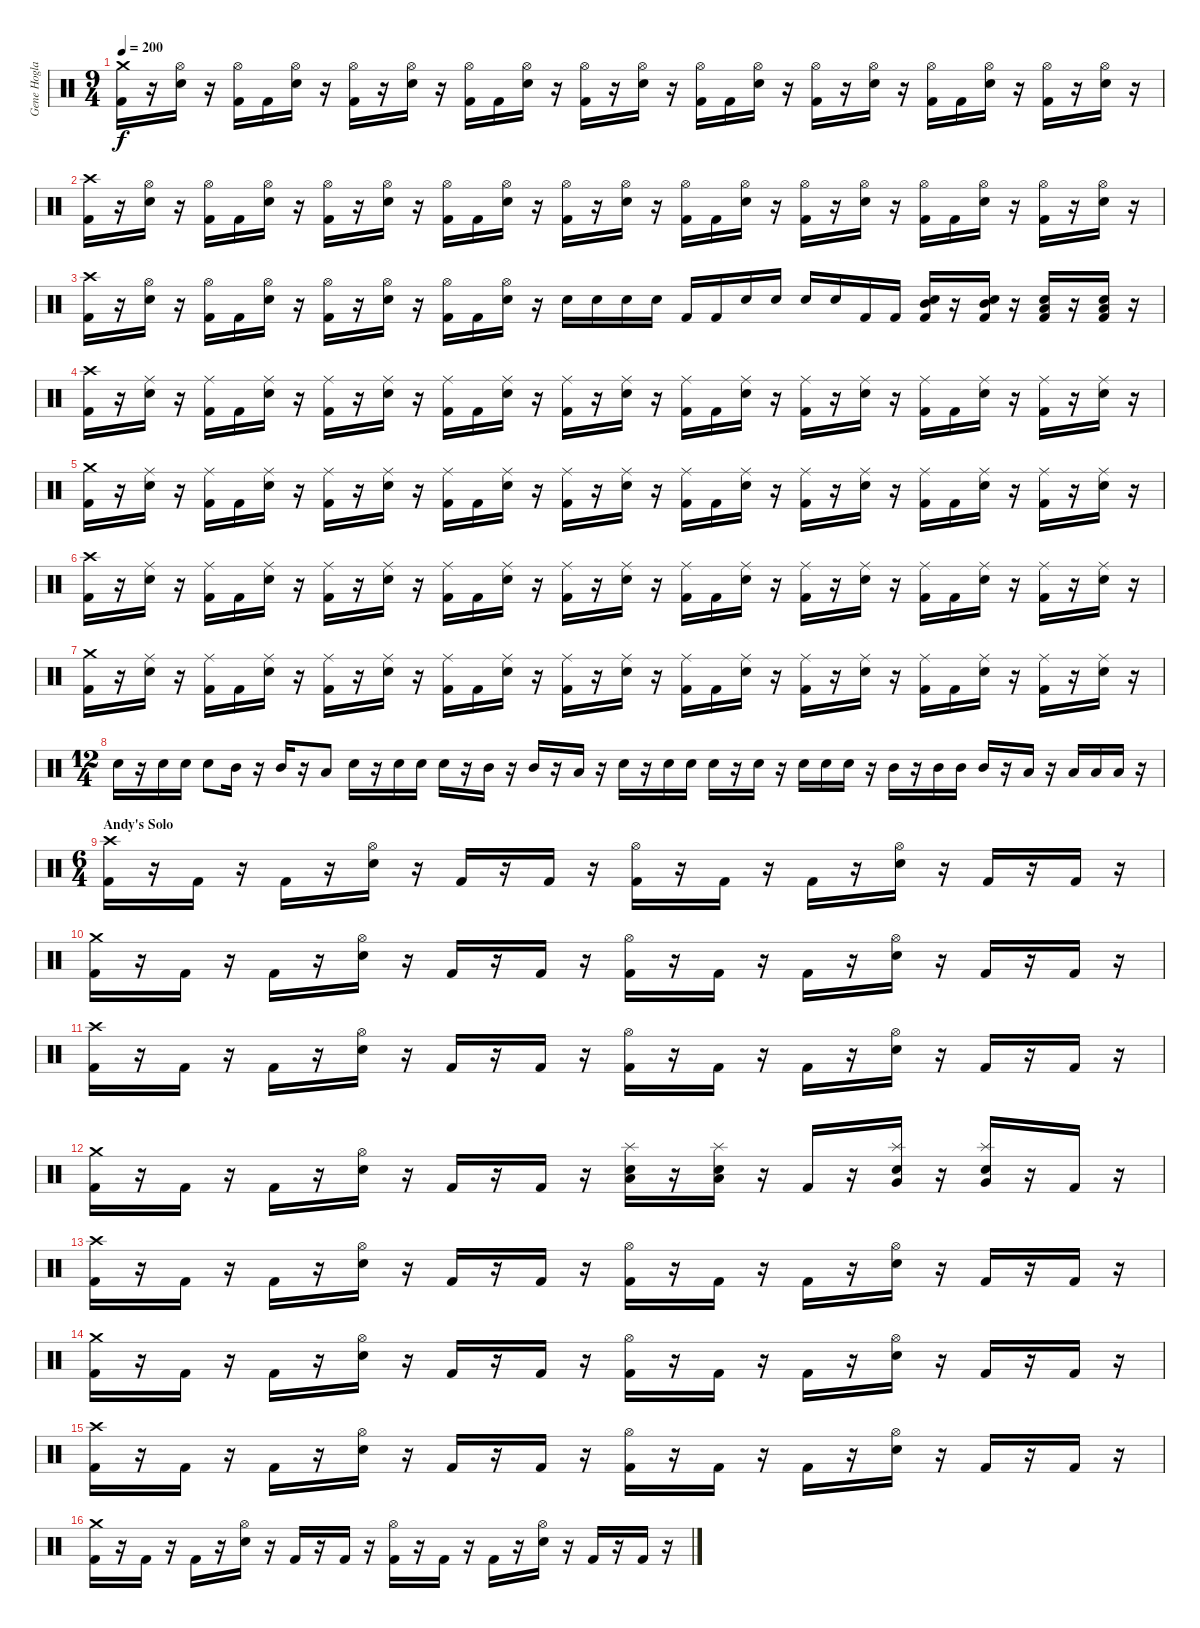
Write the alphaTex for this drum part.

\track ("Gene Hoglan" "Gene Hogla") {instrument percussion}
\staff {score}
\articulation defaults
\ts (9 4)
\tempo 200
\clef neutral
\ks c
("Crash medium (hit)" "Kick (hit) 2").16{dy f} r.16 ("Hi-Hat (open)" "Electric Snare (hit)").16 r.16 ("Hi-Hat (open)" "Kick (hit) 2").16 "Kick (hit) 2".16 ("Hi-Hat (open)" "Electric Snare (hit)").16 r.16 ("Hi-Hat (open)" "Kick (hit) 2").16 r.16 ("Hi-Hat (open)" "Electric Snare (hit)").16 r.16 ("Hi-Hat (open)" "Kick (hit) 2").16 "Kick (hit) 2".16 ("Hi-Hat (open)" "Electric Snare (hit)").16 r.16 ("Hi-Hat (open)" "Kick (hit) 2").16 r.16 ("Hi-Hat (open)" "Electric Snare (hit)").16 r.16 ("Hi-Hat (open)" "Kick (hit) 2").16 "Kick (hit) 2".16 ("Hi-Hat (open)" "Electric Snare (hit)").16 r.16 ("Hi-Hat (open)" "Kick (hit) 2").16 r.16 ("Hi-Hat (open)" "Electric Snare (hit)").16 r.16 ("Hi-Hat (open)" "Kick (hit) 2").16 "Kick (hit) 2".16 ("Hi-Hat (open)" "Electric Snare (hit)").16 r.16 ("Hi-Hat (open)" "Kick (hit) 2").16 r.16 ("Hi-Hat (open)" "Electric Snare (hit)").16 r.16 |
("Crash high (hit)" "Kick (hit) 2").16 r.16 ("Hi-Hat (open)" "Electric Snare (hit)").16 r.16 ("Hi-Hat (open)" "Kick (hit) 2").16 "Kick (hit) 2".16 ("Hi-Hat (open)" "Electric Snare (hit)").16 r.16 ("Hi-Hat (open)" "Kick (hit) 2").16 r.16 ("Hi-Hat (open)" "Electric Snare (hit)").16 r.16 ("Hi-Hat (open)" "Kick (hit) 2").16 "Kick (hit) 2".16 ("Hi-Hat (open)" "Electric Snare (hit)").16 r.16 ("Hi-Hat (open)" "Kick (hit) 2").16 r.16 ("Hi-Hat (open)" "Electric Snare (hit)").16 r.16 ("Hi-Hat (open)" "Kick (hit) 2").16 "Kick (hit) 2".16 ("Hi-Hat (open)" "Electric Snare (hit)").16 r.16 ("Hi-Hat (open)" "Kick (hit) 2").16 r.16 ("Hi-Hat (open)" "Electric Snare (hit)").16 r.16 ("Hi-Hat (open)" "Kick (hit) 2").16 "Kick (hit) 2".16 ("Hi-Hat (open)" "Electric Snare (hit)").16 r.16 ("Hi-Hat (open)" "Kick (hit) 2").16 r.16 ("Hi-Hat (open)" "Electric Snare (hit)").16 r.16 |
("Crash high (hit)" "Kick (hit) 2").16 r.16 ("Hi-Hat (open)" "Electric Snare (hit)").16 r.16 ("Hi-Hat (open)" "Kick (hit) 2").16 "Kick (hit) 2".16 ("Hi-Hat (open)" "Electric Snare (hit)").16 r.16 ("Hi-Hat (open)" "Kick (hit) 2").16 r.16 ("Hi-Hat (open)" "Electric Snare (hit)").16 r.16 ("Hi-Hat (open)" "Kick (hit) 2").16 "Kick (hit) 2".16 ("Hi-Hat (open)" "Electric Snare (hit)").16 r.16 "Electric Snare (hit)".16 "Electric Snare (hit)".16 "Electric Snare (hit)".16 "Electric Snare (hit)".16 "Kick (hit) 2".16 "Kick (hit) 2".16 "Electric Snare (hit)".16 "Electric Snare (hit)".16 "Electric Snare (hit)".16 "Electric Snare (hit)".16 "Kick (hit) 2".16 "Kick (hit) 2".16 ("Mid Tom (hit)" "Electric Snare (hit)" "Kick (hit) 2").16 r.16 ("Mid Tom (hit)" "Electric Snare (hit)" "Kick (hit) 2").16 r.16 ("Low Tom (hit)" "Electric Snare (hit)" "Kick (hit) 2").16 r.16 ("Low Tom (hit)" "Electric Snare (hit)" "Kick (hit) 2").16 r.16 |
("Crash high (hit)" "Kick (hit) 2").16 r.16 ("Ride (middle)" "Electric Snare (hit)").16 r.16 ("Ride (middle)" "Kick (hit) 2").16 "Kick (hit) 2".16 ("Ride (middle)" "Electric Snare (hit)").16 r.16 ("Ride (middle)" "Kick (hit) 2").16 r.16 ("Ride (middle)" "Electric Snare (hit)").16 r.16 ("Ride (middle)" "Kick (hit) 2").16 "Kick (hit) 2".16 ("Ride (middle)" "Electric Snare (hit)").16 r.16 ("Ride (middle)" "Kick (hit) 2").16 r.16 ("Ride (middle)" "Electric Snare (hit)").16 r.16 ("Ride (middle)" "Kick (hit) 2").16 "Kick (hit) 2".16 ("Ride (middle)" "Electric Snare (hit)").16 r.16 ("Ride (middle)" "Kick (hit) 2").16 r.16 ("Ride (middle)" "Electric Snare (hit)").16 r.16 ("Ride (middle)" "Kick (hit) 2").16 "Kick (hit) 2".16 ("Ride (middle)" "Electric Snare (hit)").16 r.16 ("Ride (middle)" "Kick (hit) 2").16 r.16 ("Ride (middle)" "Electric Snare (hit)").16 r.16 |
("Crash medium (hit)" "Kick (hit) 2").16 r.16 ("Ride (middle)" "Electric Snare (hit)").16 r.16 ("Ride (middle)" "Kick (hit) 2").16 "Kick (hit) 2".16 ("Ride (middle)" "Electric Snare (hit)").16 r.16 ("Ride (middle)" "Kick (hit) 2").16 r.16 ("Ride (middle)" "Electric Snare (hit)").16 r.16 ("Ride (middle)" "Kick (hit) 2").16 "Kick (hit) 2".16 ("Ride (middle)" "Electric Snare (hit)").16 r.16 ("Ride (middle)" "Kick (hit) 2").16 r.16 ("Ride (middle)" "Electric Snare (hit)").16 r.16 ("Ride (middle)" "Kick (hit) 2").16 "Kick (hit) 2".16 ("Ride (middle)" "Electric Snare (hit)").16 r.16 ("Ride (middle)" "Kick (hit) 2").16 r.16 ("Ride (middle)" "Electric Snare (hit)").16 r.16 ("Ride (middle)" "Kick (hit) 2").16 "Kick (hit) 2".16 ("Ride (middle)" "Electric Snare (hit)").16 r.16 ("Ride (middle)" "Kick (hit) 2").16 r.16 ("Ride (middle)" "Electric Snare (hit)").16 r.16 |
("Crash high (hit)" "Kick (hit) 2").16 r.16 ("Ride (middle)" "Electric Snare (hit)").16 r.16 ("Ride (middle)" "Kick (hit) 2").16 "Kick (hit) 2".16 ("Ride (middle)" "Electric Snare (hit)").16 r.16 ("Ride (middle)" "Kick (hit) 2").16 r.16 ("Ride (middle)" "Electric Snare (hit)").16 r.16 ("Ride (middle)" "Kick (hit) 2").16 "Kick (hit) 2".16 ("Ride (middle)" "Electric Snare (hit)").16 r.16 ("Ride (middle)" "Kick (hit) 2").16 r.16 ("Ride (middle)" "Electric Snare (hit)").16 r.16 ("Ride (middle)" "Kick (hit) 2").16 "Kick (hit) 2".16 ("Ride (middle)" "Electric Snare (hit)").16 r.16 ("Ride (middle)" "Kick (hit) 2").16 r.16 ("Ride (middle)" "Electric Snare (hit)").16 r.16 ("Ride (middle)" "Kick (hit) 2").16 "Kick (hit) 2".16 ("Ride (middle)" "Electric Snare (hit)").16 r.16 ("Ride (middle)" "Kick (hit) 2").16 r.16 ("Ride (middle)" "Electric Snare (hit)").16 r.16 |
("Crash medium (hit)" "Kick (hit) 2").16 r.16 ("Ride (middle)" "Electric Snare (hit)").16 r.16 ("Ride (middle)" "Kick (hit) 2").16 "Kick (hit) 2".16 ("Ride (middle)" "Electric Snare (hit)").16 r.16 ("Ride (middle)" "Kick (hit) 2").16 r.16 ("Ride (middle)" "Electric Snare (hit)").16 r.16 ("Ride (middle)" "Kick (hit) 2").16 "Kick (hit) 2".16 ("Ride (middle)" "Electric Snare (hit)").16 r.16 ("Ride (middle)" "Kick (hit) 2").16 r.16 ("Ride (middle)" "Electric Snare (hit)").16 r.16 ("Ride (middle)" "Kick (hit) 2").16 "Kick (hit) 2".16 ("Ride (middle)" "Electric Snare (hit)").16 r.16 ("Ride (middle)" "Kick (hit) 2").16 r.16 ("Ride (middle)" "Electric Snare (hit)").16 r.16 ("Ride (middle)" "Kick (hit) 2").16 "Kick (hit) 2".16 ("Ride (middle)" "Electric Snare (hit)").16 r.16 ("Ride (middle)" "Kick (hit) 2").16 r.16 ("Ride (middle)" "Electric Snare (hit)").16 r.16 |
\ts (12 4)
"Electric Snare (hit)".16 r.16 "Electric Snare (hit)".16 "Electric Snare (hit)".16 "Electric Snare (hit)".8 "Mid Tom (hit)".16 r.16 "Mid Tom (hit)".16 r.16 "Low Tom (hit)".8 "Electric Snare (hit)".16 r.16 "Electric Snare (hit)".16 "Electric Snare (hit)".16 "Electric Snare (hit)".16 r.16 "Mid Tom (hit)".16 r.16 "Mid Tom (hit)".16 r.16 "Low Tom (hit)".16 r.16 "Electric Snare (hit)".16 r.16 "Electric Snare (hit)".16 "Electric Snare (hit)".16 "Electric Snare (hit)".16 r.16 "Electric Snare (hit)".16 r.16 "Electric Snare (hit)".16 "Electric Snare (hit)".16 "Electric Snare (hit)".16 r.16 "Mid Tom (hit)".16 r.16 "Mid Tom (hit)".16 "Mid Tom (hit)".16 "Mid Tom (hit)".16 r.16 "Low Tom (hit)".16 r.16 "Low Tom (hit)".16 "Low Tom (hit)".16 "Low Tom (hit)".16 r.16 |
\ts (6 4)
\section ("" "Andy's Solo")
("Crash high (hit)" "Kick (hit) 2").16 r.16 "Kick (hit) 2".16 r.16 "Kick (hit) 2".16 r.16 ("Hi-Hat (open)" "Electric Snare (hit)").16 r.16 "Kick (hit) 2".16 r.16 "Kick (hit) 2".16 r.16 ("Hi-Hat (open)" "Kick (hit) 2").16 r.16 "Kick (hit) 2".16 r.16 "Kick (hit) 2".16 r.16 ("Hi-Hat (open)" "Electric Snare (hit)").16 r.16 "Kick (hit) 2".16 r.16 "Kick (hit) 2".16 r.16 |
("Crash medium (hit)" "Kick (hit) 2").16 r.16 "Kick (hit) 2".16 r.16 "Kick (hit) 2".16 r.16 ("Hi-Hat (open)" "Electric Snare (hit)").16 r.16 "Kick (hit) 2".16 r.16 "Kick (hit) 2".16 r.16 ("Hi-Hat (open)" "Kick (hit) 2").16 r.16 "Kick (hit) 2".16 r.16 "Kick (hit) 2".16 r.16 ("Hi-Hat (open)" "Electric Snare (hit)").16 r.16 "Kick (hit) 2".16 r.16 "Kick (hit) 2".16 r.16 |
("Crash high (hit)" "Kick (hit) 2").16 r.16 "Kick (hit) 2".16 r.16 "Kick (hit) 2".16 r.16 ("Hi-Hat (open)" "Electric Snare (hit)").16 r.16 "Kick (hit) 2".16 r.16 "Kick (hit) 2".16 r.16 ("Hi-Hat (open)" "Kick (hit) 2").16 r.16 "Kick (hit) 2".16 r.16 "Kick (hit) 2".16 r.16 ("Hi-Hat (open)" "Electric Snare (hit)").16 r.16 "Kick (hit) 2".16 r.16 "Kick (hit) 2".16 r.16 |
("Crash medium (hit)" "Kick (hit) 2").16 r.16 "Kick (hit) 2".16 r.16 "Kick (hit) 2".16 r.16 ("Hi-Hat (open)" "Electric Snare (hit)").16 r.16 "Kick (hit) 2".16 r.16 "Kick (hit) 2".16 r.16 ("Splash (hit)" "Low Tom (hit)" "Electric Snare (hit)").16 r.16 ("Splash (hit)" "Low Tom (hit)" "Electric Snare (hit)").16 r.16 "Kick (hit) 2".16 r.16 ("Splash (hit)" "Very Low Tom (hit)" "Electric Snare (hit)").16 r.16 ("Splash (hit)" "Very Low Tom (hit)" "Electric Snare (hit)").16 r.16 "Kick (hit) 2".16 r.16 |
("Crash high (hit)" "Kick (hit) 2").16 r.16 "Kick (hit) 2".16 r.16 "Kick (hit) 2".16 r.16 ("Hi-Hat (open)" "Electric Snare (hit)").16 r.16 "Kick (hit) 2".16 r.16 "Kick (hit) 2".16 r.16 ("Hi-Hat (open)" "Kick (hit) 2").16 r.16 "Kick (hit) 2".16 r.16 "Kick (hit) 2".16 r.16 ("Hi-Hat (open)" "Electric Snare (hit)").16 r.16 "Kick (hit) 2".16 r.16 "Kick (hit) 2".16 r.16 |
("Crash medium (hit)" "Kick (hit) 2").16 r.16 "Kick (hit) 2".16 r.16 "Kick (hit) 2".16 r.16 ("Hi-Hat (open)" "Electric Snare (hit)").16 r.16 "Kick (hit) 2".16 r.16 "Kick (hit) 2".16 r.16 ("Hi-Hat (open)" "Kick (hit) 2").16 r.16 "Kick (hit) 2".16 r.16 "Kick (hit) 2".16 r.16 ("Hi-Hat (open)" "Electric Snare (hit)").16 r.16 "Kick (hit) 2".16 r.16 "Kick (hit) 2".16 r.16 |
("Crash high (hit)" "Kick (hit) 2").16 r.16 "Kick (hit) 2".16 r.16 "Kick (hit) 2".16 r.16 ("Hi-Hat (open)" "Electric Snare (hit)").16 r.16 "Kick (hit) 2".16 r.16 "Kick (hit) 2".16 r.16 ("Hi-Hat (open)" "Kick (hit) 2").16 r.16 "Kick (hit) 2".16 r.16 "Kick (hit) 2".16 r.16 ("Hi-Hat (open)" "Electric Snare (hit)").16 r.16 "Kick (hit) 2".16 r.16 "Kick (hit) 2".16 r.16 |
("Crash medium (hit)" "Kick (hit) 2").16 r.16 "Kick (hit) 2".16 r.16 "Kick (hit) 2".16 r.16 ("Hi-Hat (open)" "Electric Snare (hit)").16 r.16 "Kick (hit) 2".16 r.16 "Kick (hit) 2".16 r.16 ("Hi-Hat (open)" "Kick (hit) 2").16 r.16 "Kick (hit) 2".16 r.16 "Kick (hit) 2".16 r.16 ("Hi-Hat (open)" "Electric Snare (hit)").16 r.16 "Kick (hit) 2".16 r.16 "Kick (hit) 2".16 r.16
